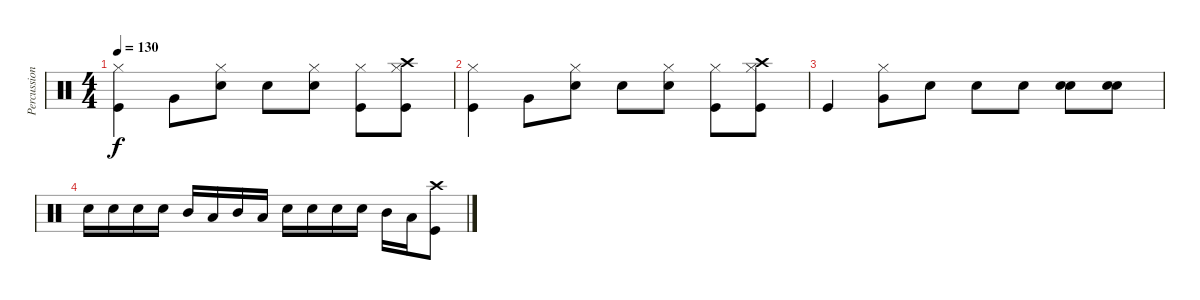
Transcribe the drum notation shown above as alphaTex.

\track ("Percussion" "Percussion") {instrument percussion}
\staff {score}
\articulation defaults
\ts (4 4)
\tempo 130
\clef neutral
\ks c
("Kick (hit)" "Hi-Hat (closed)").4{dy f} "Very Low Tom (hit)".8 ("Snare (hit) 2" "Hi-Hat (closed)").8 "Snare (hit) 2".8 ("Snare (hit) 2" "Hi-Hat (closed)").8 ("Kick (hit)" "Hi-Hat (closed)").8 ("Kick (hit)" "Crash high (hit)" "Hi-Hat (closed)").8 |
("Kick (hit)" "Hi-Hat (closed)").4 "Very Low Tom (hit)".8 ("Snare (hit) 2" "Hi-Hat (closed)").8 "Snare (hit) 2".8 ("Snare (hit) 2" "Hi-Hat (closed)").8 ("Kick (hit)" "Hi-Hat (closed)").8 ("Kick (hit)" "Crash high (hit)" "Hi-Hat (closed)").8 |
"Kick (hit)".4 ("Very Low Tom (hit)" "Hi-Hat (closed)").8 "Snare (hit) 2".8 "Snare (hit) 2".8 "Snare (hit) 2".8 ("Snare (hit) 2" "Snare (hit) 2").8 ("Snare (hit) 2" "Snare (hit) 2").8 |
"Snare (hit) 2".16 "Snare (hit) 2".16 "Snare (hit) 2".16 "Snare (hit) 2".16 "Mid Tom (hit)".16 "Low Tom (hit)".16 "Mid Tom (hit)".16 "Low Tom (hit)".16 "Snare (hit) 2".16 "Snare (hit) 2".16 "Snare (hit) 2".16 "Snare (hit) 2".16 "Mid Tom (hit)".16 "Low Tom (hit)".16 ("Crash high (hit)" "Kick (hit)").8
